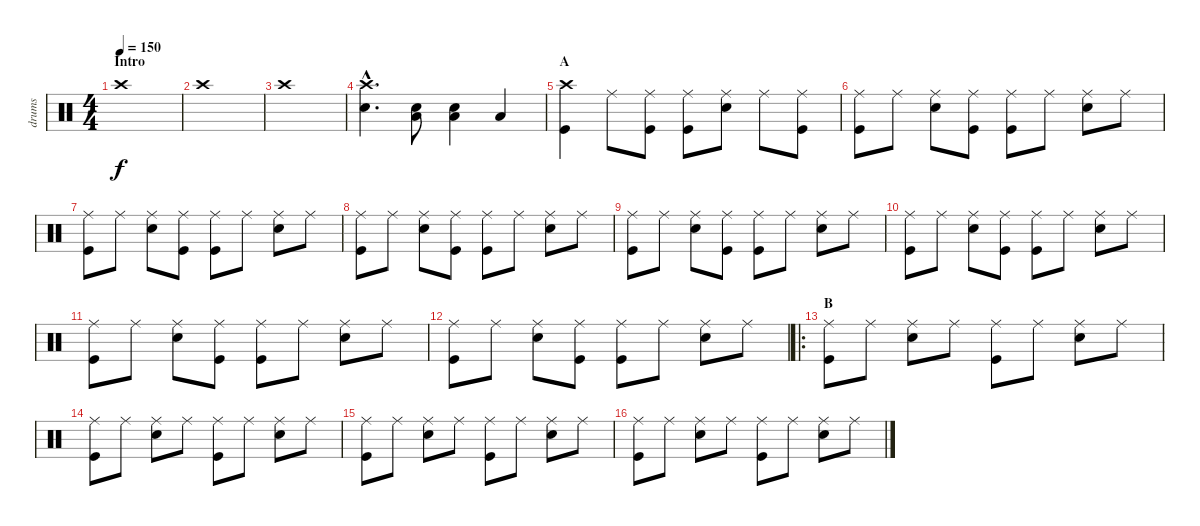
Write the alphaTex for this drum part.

\track ("drums" "drums") {instrument percussion}
\staff {score}
\articulation defaults
\ts (4 4)
\section ("" "Intro")
\tempo 150
\clef neutral
\ks c "Crash high (hit)".1{dy f}
|
"Crash high (hit)".1 |
"Crash high (hit)".1 |
("Crash high (hit)"{hac} "Snare (hit) 2"{hac}).4{d} ("Snare (hit) 2" "Low Tom (hit)").8 ("Snare (hit) 2" "Low Tom (hit)").4 "Low Tom (hit)".4 |
\section ("" "A")
("Crash high (hit)" "Kick (hit)").4 "Ride (middle)".8 ("Ride (middle)" "Kick (hit)").8 ("Ride (middle)" "Kick (hit)").8 ("Ride (middle)" "Snare (hit) 2").8 "Ride (middle)".8 ("Ride (middle)" "Kick (hit)").8 |
("Ride (middle)" "Kick (hit)").8 "Ride (middle)".8 ("Ride (middle)" "Snare (hit) 2").8 ("Ride (middle)" "Kick (hit)").8 ("Ride (middle)" "Kick (hit)").8 "Ride (middle)".8 ("Ride (middle)" "Snare (hit) 2").8 "Ride (middle)".8 |
("Ride (middle)" "Kick (hit)").8 "Ride (middle)".8 ("Ride (middle)" "Snare (hit) 2").8 ("Ride (middle)" "Kick (hit)").8 ("Ride (middle)" "Kick (hit)").8 "Ride (middle)".8 ("Ride (middle)" "Snare (hit) 2").8 "Ride (middle)".8 |
("Ride (middle)" "Kick (hit)").8 "Ride (middle)".8 ("Ride (middle)" "Snare (hit) 2").8 ("Ride (middle)" "Kick (hit)").8 ("Ride (middle)" "Kick (hit)").8 "Ride (middle)".8 ("Ride (middle)" "Snare (hit) 2").8 "Ride (middle)".8 |
("Ride (middle)" "Kick (hit)").8 "Ride (middle)".8 ("Ride (middle)" "Snare (hit) 2").8 ("Ride (middle)" "Kick (hit)").8 ("Ride (middle)" "Kick (hit)").8 "Ride (middle)".8 ("Ride (middle)" "Snare (hit) 2").8 "Ride (middle)".8 |
("Ride (middle)" "Kick (hit)").8 "Ride (middle)".8 ("Ride (middle)" "Snare (hit) 2").8 ("Ride (middle)" "Kick (hit)").8 ("Ride (middle)" "Kick (hit)").8 "Ride (middle)".8 ("Ride (middle)" "Snare (hit) 2").8 "Ride (middle)".8 |
("Ride (middle)" "Kick (hit)").8 "Ride (middle)".8 ("Ride (middle)" "Snare (hit) 2").8 ("Ride (middle)" "Kick (hit)").8 ("Ride (middle)" "Kick (hit)").8 "Ride (middle)".8 ("Ride (middle)" "Snare (hit) 2").8 "Ride (middle)".8 |
("Ride (middle)" "Kick (hit)").8 "Ride (middle)".8 ("Ride (middle)" "Snare (hit) 2").8 ("Ride (middle)" "Kick (hit)").8 ("Ride (middle)" "Kick (hit)").8 "Ride (middle)".8 ("Ride (middle)" "Snare (hit) 2").8 "Ride (middle)".8 |
\ro
\section ("" "B")
("Ride (middle)" "Kick (hit)").8 "Ride (middle)".8 ("Ride (middle)" "Snare (hit) 2").8 "Ride (middle)".8 ("Ride (middle)" "Kick (hit)").8 "Ride (middle)".8 ("Ride (middle)" "Snare (hit) 2").8 "Ride (middle)".8 |
("Ride (middle)" "Kick (hit)").8 "Ride (middle)".8 ("Ride (middle)" "Snare (hit) 2").8 "Ride (middle)".8 ("Ride (middle)" "Kick (hit)").8 "Ride (middle)".8 ("Ride (middle)" "Snare (hit) 2").8 "Ride (middle)".8 |
("Ride (middle)" "Kick (hit)").8 "Ride (middle)".8 ("Ride (middle)" "Snare (hit) 2").8 "Ride (middle)".8 ("Ride (middle)" "Kick (hit)").8 "Ride (middle)".8 ("Ride (middle)" "Snare (hit) 2").8 "Ride (middle)".8 |
("Ride (middle)" "Kick (hit)").8 "Ride (middle)".8 ("Ride (middle)" "Snare (hit) 2").8 "Ride (middle)".8 ("Ride (middle)" "Kick (hit)").8 "Ride (middle)".8 ("Ride (middle)" "Snare (hit) 2").8 "Ride (middle)".8
